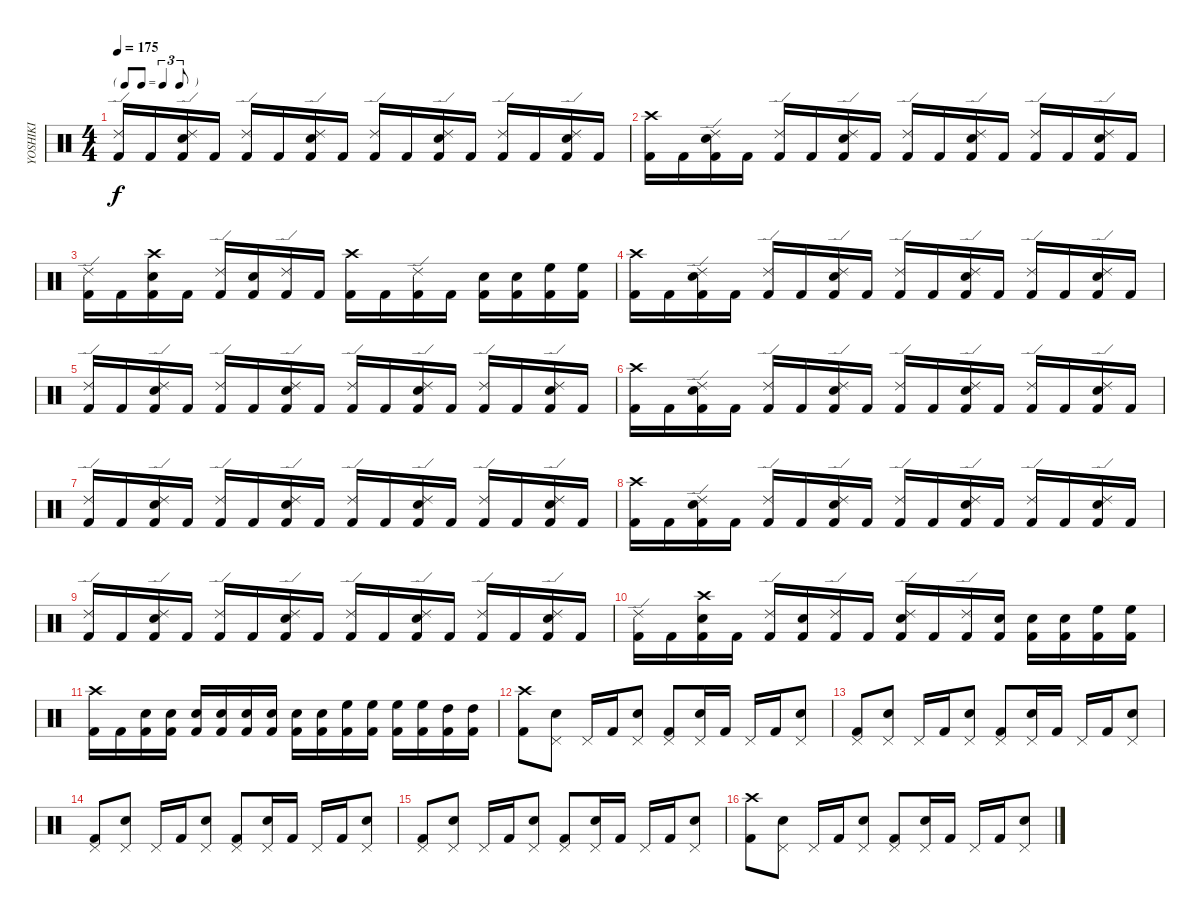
\track ("YOSHIKI" "YOSHIKI") {instrument percussion}
\staff {score}
\articulation defaults
\ts (4 4)
\tf triplet8th
\tempo 175
\clef neutral
\ks c
("Ride (edge) 2" "Kick (hit) 2").16{dy f} "Kick (hit) 2".16 ("Ride (edge) 2" "Snare (hit) 2" "Kick (hit) 2").16 "Kick (hit) 2".16 ("Ride (edge) 2" "Kick (hit) 2").16 "Kick (hit) 2".16 ("Ride (edge) 2" "Snare (hit) 2" "Kick (hit) 2").16 "Kick (hit) 2".16 ("Ride (edge) 2" "Kick (hit) 2").16 "Kick (hit) 2".16 ("Ride (edge) 2" "Snare (hit) 2" "Kick (hit) 2").16 "Kick (hit) 2".16 ("Ride (edge) 2" "Kick (hit) 2").16 "Kick (hit) 2".16 ("Ride (edge) 2" "Snare (hit) 2" "Kick (hit) 2").16 "Kick (hit) 2".16 |
("Crash high (hit)" "Kick (hit) 2").16 "Kick (hit) 2".16 ("Ride (edge) 2" "Snare (hit) 2" "Kick (hit) 2").16 "Kick (hit) 2".16 ("Ride (edge) 2" "Kick (hit) 2").16 "Kick (hit) 2".16 ("Ride (edge) 2" "Snare (hit) 2" "Kick (hit) 2").16 "Kick (hit) 2".16 ("Ride (edge) 2" "Kick (hit) 2").16 "Kick (hit) 2".16 ("Ride (edge) 2" "Snare (hit) 2" "Kick (hit) 2").16 "Kick (hit) 2".16 ("Ride (edge) 2" "Kick (hit) 2").16 "Kick (hit) 2".16 ("Ride (edge) 2" "Snare (hit) 2" "Kick (hit) 2").16 "Kick (hit) 2".16 |
("Ride (edge) 2" "Kick (hit) 2").16 "Kick (hit) 2".16 ("Crash high (hit)" "Snare (hit) 2" "Kick (hit) 2").16 "Kick (hit) 2".16 ("Ride (edge) 2" "Kick (hit) 2").16 ("Snare (hit) 2" "Kick (hit) 2").16 ("Ride (edge) 2" "Kick (hit) 2").16 "Kick (hit) 2".16 ("Crash high (hit)" "Kick (hit) 2").16 "Kick (hit) 2".16 ("Ride (edge) 2" "Kick (hit) 2").16 "Kick (hit) 2".16 ("Snare (hit) 2" "Kick (hit) 2").16 ("Snare (hit) 2" "Kick (hit) 2").16 ("High Floor Tom (hit)" "Kick (hit) 2").16 ("High Floor Tom (hit)" "Kick (hit) 2").16 |
("Crash high (hit)" "Kick (hit) 2").16 "Kick (hit) 2".16 ("Ride (edge) 2" "Snare (hit) 2" "Kick (hit) 2").16 "Kick (hit) 2".16 ("Ride (edge) 2" "Kick (hit) 2").16 "Kick (hit) 2".16 ("Ride (edge) 2" "Snare (hit) 2" "Kick (hit) 2").16 "Kick (hit) 2".16 ("Ride (edge) 2" "Kick (hit) 2").16 "Kick (hit) 2".16 ("Ride (edge) 2" "Snare (hit) 2" "Kick (hit) 2").16 "Kick (hit) 2".16 ("Ride (edge) 2" "Kick (hit) 2").16 "Kick (hit) 2".16 ("Ride (edge) 2" "Snare (hit) 2" "Kick (hit) 2").16 "Kick (hit) 2".16 |
("Ride (edge) 2" "Kick (hit) 2").16 "Kick (hit) 2".16 ("Ride (edge) 2" "Snare (hit) 2" "Kick (hit) 2").16 "Kick (hit) 2".16 ("Ride (edge) 2" "Kick (hit) 2").16 "Kick (hit) 2".16 ("Ride (edge) 2" "Snare (hit) 2" "Kick (hit) 2").16 "Kick (hit) 2".16 ("Ride (edge) 2" "Kick (hit) 2").16 "Kick (hit) 2".16 ("Ride (edge) 2" "Snare (hit) 2" "Kick (hit) 2").16 "Kick (hit) 2".16 ("Ride (edge) 2" "Kick (hit) 2").16 "Kick (hit) 2".16 ("Ride (edge) 2" "Snare (hit) 2" "Kick (hit) 2").16 "Kick (hit) 2".16 |
("Crash high (hit)" "Kick (hit) 2").16 "Kick (hit) 2".16 ("Ride (edge) 2" "Snare (hit) 2" "Kick (hit) 2").16 "Kick (hit) 2".16 ("Ride (edge) 2" "Kick (hit) 2").16 "Kick (hit) 2".16 ("Ride (edge) 2" "Snare (hit) 2" "Kick (hit) 2").16 "Kick (hit) 2".16 ("Ride (edge) 2" "Kick (hit) 2").16 "Kick (hit) 2".16 ("Ride (edge) 2" "Snare (hit) 2" "Kick (hit) 2").16 "Kick (hit) 2".16 ("Ride (edge) 2" "Kick (hit) 2").16 "Kick (hit) 2".16 ("Ride (edge) 2" "Snare (hit) 2" "Kick (hit) 2").16 "Kick (hit) 2".16 |
("Ride (edge) 2" "Kick (hit) 2").16 "Kick (hit) 2".16 ("Ride (edge) 2" "Snare (hit) 2" "Kick (hit) 2").16 "Kick (hit) 2".16 ("Ride (edge) 2" "Kick (hit) 2").16 "Kick (hit) 2".16 ("Ride (edge) 2" "Snare (hit) 2" "Kick (hit) 2").16 "Kick (hit) 2".16 ("Ride (edge) 2" "Kick (hit) 2").16 "Kick (hit) 2".16 ("Ride (edge) 2" "Snare (hit) 2" "Kick (hit) 2").16 "Kick (hit) 2".16 ("Ride (edge) 2" "Kick (hit) 2").16 "Kick (hit) 2".16 ("Ride (edge) 2" "Snare (hit) 2" "Kick (hit) 2").16 "Kick (hit) 2".16 |
("Crash high (hit)" "Kick (hit) 2").16 "Kick (hit) 2".16 ("Ride (edge) 2" "Snare (hit) 2" "Kick (hit) 2").16 "Kick (hit) 2".16 ("Ride (edge) 2" "Kick (hit) 2").16 "Kick (hit) 2".16 ("Ride (edge) 2" "Snare (hit) 2" "Kick (hit) 2").16 "Kick (hit) 2".16 ("Ride (edge) 2" "Kick (hit) 2").16 "Kick (hit) 2".16 ("Ride (edge) 2" "Snare (hit) 2" "Kick (hit) 2").16 "Kick (hit) 2".16 ("Ride (edge) 2" "Kick (hit) 2").16 "Kick (hit) 2".16 ("Ride (edge) 2" "Snare (hit) 2" "Kick (hit) 2").16 "Kick (hit) 2".16 |
("Ride (edge) 2" "Kick (hit) 2").16 "Kick (hit) 2".16 ("Ride (edge) 2" "Snare (hit) 2" "Kick (hit) 2").16 "Kick (hit) 2".16 ("Ride (edge) 2" "Kick (hit) 2").16 "Kick (hit) 2".16 ("Ride (edge) 2" "Snare (hit) 2" "Kick (hit) 2").16 "Kick (hit) 2".16 ("Ride (edge) 2" "Kick (hit) 2").16 "Kick (hit) 2".16 ("Ride (edge) 2" "Snare (hit) 2" "Kick (hit) 2").16 "Kick (hit) 2".16 ("Ride (edge) 2" "Kick (hit) 2").16 "Kick (hit) 2".16 ("Ride (edge) 2" "Snare (hit) 2" "Kick (hit) 2").16 "Kick (hit) 2".16 |
("Ride (edge) 2" "Kick (hit) 2").16 "Kick (hit) 2".16 ("Crash high (hit)" "Snare (hit) 2" "Kick (hit) 2").16 "Kick (hit) 2".16 ("Ride (edge) 2" "Kick (hit) 2").16 ("Snare (hit) 2" "Kick (hit) 2").16 ("Ride (edge) 2" "Kick (hit) 2").16 "Kick (hit) 2".16 ("Ride (edge) 2" "Snare (hit) 2" "Kick (hit) 2").16 "Kick (hit) 2".16 ("Ride (edge) 2" "Kick (hit) 2").16 ("Snare (hit) 2" "Kick (hit) 2").16 ("Snare (hit) 2" "Kick (hit) 2").16 ("Snare (hit) 2" "Kick (hit) 2").16 ("High Floor Tom (hit)" "Kick (hit) 2").16 ("High Floor Tom (hit)" "Kick (hit) 2").16 |
("Crash high (hit)" "Kick (hit) 2").16 "Kick (hit) 2".16 ("Snare (hit) 2" "Kick (hit) 2").16 ("Snare (hit) 2" "Kick (hit) 2").16 ("Snare (hit) 2" "Kick (hit) 2").16 ("Snare (hit) 2" "Kick (hit) 2").16 ("Snare (hit) 2" "Kick (hit) 2").16 ("Snare (hit) 2" "Kick (hit) 2").16 ("Snare (hit) 2" "Kick (hit) 2").16 ("Snare (hit) 2" "Kick (hit) 2").16 ("High Floor Tom (hit)" "Kick (hit) 2").16 ("High Floor Tom (hit)" "Kick (hit) 2").16 ("High Floor Tom (hit)" "Kick (hit) 2").16 ("High Floor Tom (hit)" "Kick (hit) 2").16 ("High Tom (hit)" "Kick (hit) 2").16 ("High Tom (hit)" "Kick (hit) 2").16 |
("Crash high (hit)" "Kick (hit) 2").8 ("Pedal Hi-Hat (hit)" "Snare (hit) 2").8 "Pedal Hi-Hat (hit)".16 "Kick (hit) 2".16 ("Pedal Hi-Hat (hit)" "Snare (hit) 2").8 ("Pedal Hi-Hat (hit)" "Kick (hit) 2").8 ("Pedal Hi-Hat (hit)" "Snare (hit) 2").16 "Kick (hit) 2".16 "Pedal Hi-Hat (hit)".16 "Kick (hit) 2".16 ("Pedal Hi-Hat (hit)" "Snare (hit) 2").8 |
("Pedal Hi-Hat (hit)" "Kick (hit) 2").8 ("Pedal Hi-Hat (hit)" "Snare (hit) 2").8 "Pedal Hi-Hat (hit)".16 "Kick (hit) 2".16 ("Pedal Hi-Hat (hit)" "Snare (hit) 2").8 ("Pedal Hi-Hat (hit)" "Kick (hit) 2").8 ("Pedal Hi-Hat (hit)" "Snare (hit) 2").16 "Kick (hit) 2".16 "Pedal Hi-Hat (hit)".16 "Kick (hit) 2".16 ("Pedal Hi-Hat (hit)" "Snare (hit) 2").8 |
("Pedal Hi-Hat (hit)" "Kick (hit) 2").8 ("Pedal Hi-Hat (hit)" "Snare (hit) 2").8 "Pedal Hi-Hat (hit)".16 "Kick (hit) 2".16 ("Pedal Hi-Hat (hit)" "Snare (hit) 2").8 ("Pedal Hi-Hat (hit)" "Kick (hit) 2").8 ("Pedal Hi-Hat (hit)" "Snare (hit) 2").16 "Kick (hit) 2".16 "Pedal Hi-Hat (hit)".16 "Kick (hit) 2".16 ("Pedal Hi-Hat (hit)" "Snare (hit) 2").8 |
("Pedal Hi-Hat (hit)" "Kick (hit) 2").8 ("Pedal Hi-Hat (hit)" "Snare (hit) 2").8 "Pedal Hi-Hat (hit)".16 "Kick (hit) 2".16 ("Pedal Hi-Hat (hit)" "Snare (hit) 2").8 ("Pedal Hi-Hat (hit)" "Kick (hit) 2").8 ("Pedal Hi-Hat (hit)" "Snare (hit) 2").16 "Kick (hit) 2".16 "Pedal Hi-Hat (hit)".16 "Kick (hit) 2".16 ("Pedal Hi-Hat (hit)" "Snare (hit) 2").8 |
("Crash high (hit)" "Kick (hit) 2").8 ("Pedal Hi-Hat (hit)" "Snare (hit) 2").8 "Pedal Hi-Hat (hit)".16 "Kick (hit) 2".16 ("Pedal Hi-Hat (hit)" "Snare (hit) 2").8 ("Pedal Hi-Hat (hit)" "Kick (hit) 2").8 ("Pedal Hi-Hat (hit)" "Snare (hit) 2").16 "Kick (hit) 2".16 "Pedal Hi-Hat (hit)".16 "Kick (hit) 2".16 ("Pedal Hi-Hat (hit)" "Snare (hit) 2").8
